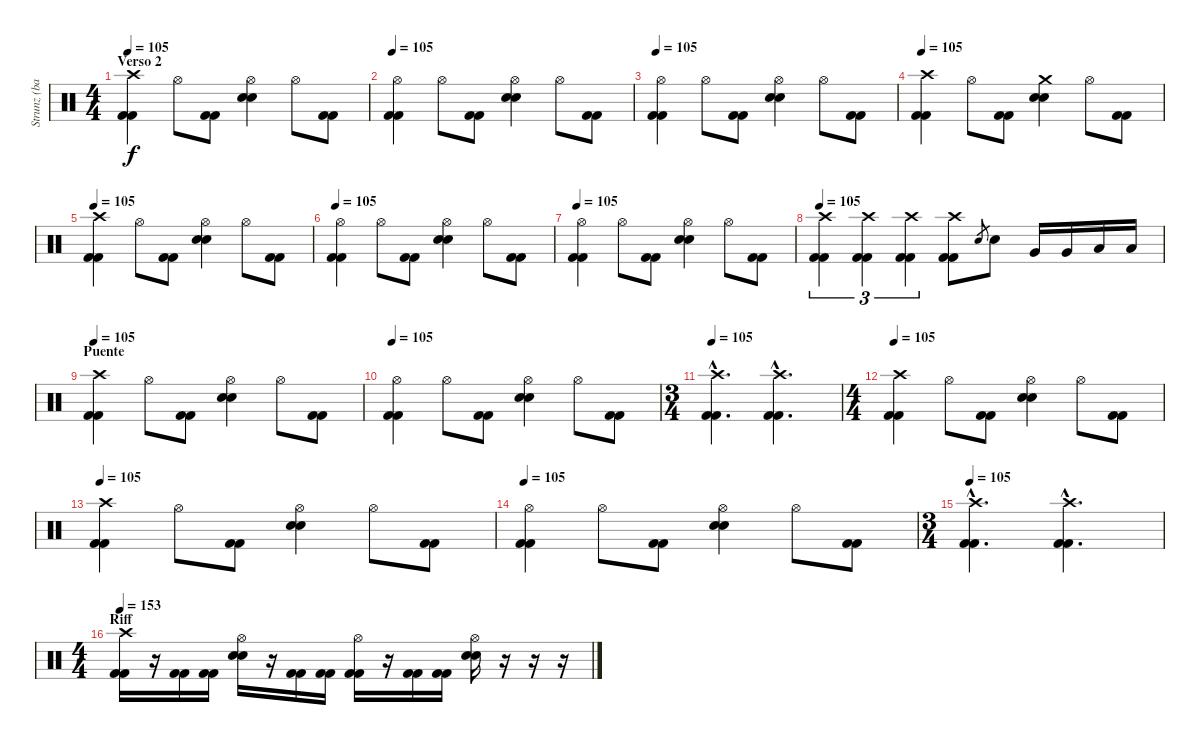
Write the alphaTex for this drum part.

\track ("Strunz (bateria)" "Strunz (ba") {instrument percussion}
\staff {score}
\articulation defaults
\ts (4 4)
\section ("" "Verso 2")
\tempo 105
\clef neutral
\ks c
("Crash high (hit)" "Kick (hit) 2" "Kick (hit) 2").4{dy f} "Hi-Hat (open)".8 ("Kick (hit) 2" "Kick (hit) 2").8 ("Hi-Hat (open)" "Snare (hit) 2" "Snare (hit) 2").4 "Hi-Hat (open)".8 ("Kick (hit) 2" "Kick (hit) 2").8 |
\tempo 105
("Hi-Hat (open)" "Kick (hit) 2" "Kick (hit) 2").4 "Hi-Hat (open)".8 ("Kick (hit) 2" "Kick (hit) 2").8 ("Hi-Hat (open)" "Snare (hit) 2" "Snare (hit) 2").4 "Hi-Hat (open)".8 ("Kick (hit) 2" "Kick (hit) 2").8 |
\tempo 105
("Hi-Hat (open)" "Kick (hit) 2" "Kick (hit) 2").4 "Hi-Hat (open)".8 ("Kick (hit) 2" "Kick (hit) 2").8 ("Hi-Hat (open)" "Snare (hit) 2" "Snare (hit) 2").4 "Hi-Hat (open)".8 ("Kick (hit) 2" "Kick (hit) 2").8 |
\tempo 105
("Crash high (hit)" "Kick (hit) 2" "Kick (hit) 2").4 "Hi-Hat (open)".8 ("Kick (hit) 2" "Kick (hit) 2").8 ("Crash medium (hit)" "Snare (hit) 2" "Snare (hit) 2").4 "Hi-Hat (open)".8 ("Kick (hit) 2" "Kick (hit) 2").8 |
\tempo 105
("Crash high (hit)" "Kick (hit) 2" "Kick (hit) 2").4 "Hi-Hat (open)".8 ("Kick (hit) 2" "Kick (hit) 2").8 ("Hi-Hat (open)" "Snare (hit) 2" "Snare (hit) 2").4 "Hi-Hat (open)".8 ("Kick (hit) 2" "Kick (hit) 2").8 |
\tempo 105
("Hi-Hat (open)" "Kick (hit) 2" "Kick (hit) 2").4 "Hi-Hat (open)".8 ("Kick (hit) 2" "Kick (hit) 2").8 ("Hi-Hat (open)" "Snare (hit) 2" "Snare (hit) 2").4 "Hi-Hat (open)".8 ("Kick (hit) 2" "Kick (hit) 2").8 |
\tempo 105
("Hi-Hat (open)" "Kick (hit) 2" "Kick (hit) 2").4 "Hi-Hat (open)".8 ("Kick (hit) 2" "Kick (hit) 2").8 ("Hi-Hat (open)" "Snare (hit) 2" "Snare (hit) 2").4 "Hi-Hat (open)".8 ("Kick (hit) 2" "Kick (hit) 2").8 |
\tempo 105
("Crash high (hit)" "Kick (hit) 2" "Kick (hit) 2").4{tu (3 2)} ("Crash high (hit)" "Kick (hit) 2" "Kick (hit) 2").4{tu (3 2)} ("Crash high (hit)" "Kick (hit) 2" "Kick (hit) 2").4{tu (3 2)} ("Crash high (hit)" "Kick (hit) 2" "Kick (hit) 2").8 "Snare (hit) 2".8{gr} "Snare (hit) 2".8 "Very Low Tom (hit)".16 "Very Low Tom (hit)".16 "Low Floor Tom (hit)".16 "Low Floor Tom (hit)".16 |
\section ("" "Puente")
\tempo 105
("Crash high (hit)" "Kick (hit) 2" "Kick (hit) 2").4 "Hi-Hat (open)".8 ("Kick (hit) 2" "Kick (hit) 2").8 ("Hi-Hat (open)" "Snare (hit) 2" "Snare (hit) 2").4 "Hi-Hat (open)".8 ("Kick (hit) 2" "Kick (hit) 2").8 |
\tempo 105
("Hi-Hat (open)" "Kick (hit) 2" "Kick (hit) 2").4 "Hi-Hat (open)".8 ("Kick (hit) 2" "Kick (hit) 2").8 ("Hi-Hat (open)" "Snare (hit) 2" "Snare (hit) 2").4 "Hi-Hat (open)".8 ("Kick (hit) 2" "Kick (hit) 2").8 |
\ts (3 4)
\tempo 105
("Crash high (hit)"{hac} "Kick (hit) 2"{hac} "Kick (hit) 2"{hac}).4{d} ("Crash high (hit)"{hac} "Kick (hit) 2"{hac} "Kick (hit) 2"{hac}).4{d} |
\ts (4 4)
\tempo 105
("Crash high (hit)" "Kick (hit) 2" "Kick (hit) 2").4 "Hi-Hat (open)".8 ("Kick (hit) 2" "Kick (hit) 2").8 ("Hi-Hat (open)" "Snare (hit) 2" "Snare (hit) 2").4 "Hi-Hat (open)".8 ("Kick (hit) 2" "Kick (hit) 2").8 |
\tempo 105
("Crash high (hit)" "Kick (hit) 2" "Kick (hit) 2").4 "Hi-Hat (open)".8 ("Kick (hit) 2" "Kick (hit) 2").8 ("Hi-Hat (open)" "Snare (hit) 2" "Snare (hit) 2").4 "Hi-Hat (open)".8 ("Kick (hit) 2" "Kick (hit) 2").8 |
\tempo 105
("Hi-Hat (open)" "Kick (hit) 2" "Kick (hit) 2").4 "Hi-Hat (open)".8 ("Kick (hit) 2" "Kick (hit) 2").8 ("Hi-Hat (open)" "Snare (hit) 2" "Snare (hit) 2").4 "Hi-Hat (open)".8 ("Kick (hit) 2" "Kick (hit) 2").8 |
\ts (3 4)
\tempo 105
("Crash high (hit)"{hac} "Kick (hit) 2"{hac} "Kick (hit) 2"{hac}).4{d} ("Crash high (hit)"{hac} "Kick (hit) 2"{hac} "Kick (hit) 2"{hac}).4{d} |
\ts (4 4)
\section ("" "Riff")
\tempo 153
("Crash high (hit)" "Kick (hit) 2" "Kick (hit) 2").16 r.16 ("Kick (hit) 2" "Kick (hit) 2").16 ("Kick (hit) 2" "Kick (hit) 2").16 ("Hi-Hat (open)" "Snare (hit) 2" "Snare (hit) 2").16 r.16 ("Kick (hit) 2" "Kick (hit) 2").16 ("Kick (hit) 2" "Kick (hit) 2").16 ("Hi-Hat (open)" "Kick (hit) 2" "Kick (hit) 2").16 r.16 ("Kick (hit) 2" "Kick (hit) 2").16 ("Kick (hit) 2" "Kick (hit) 2").16 ("Hi-Hat (open)" "Snare (hit) 2" "Snare (hit) 2").16 r.16 r.16 r.16
